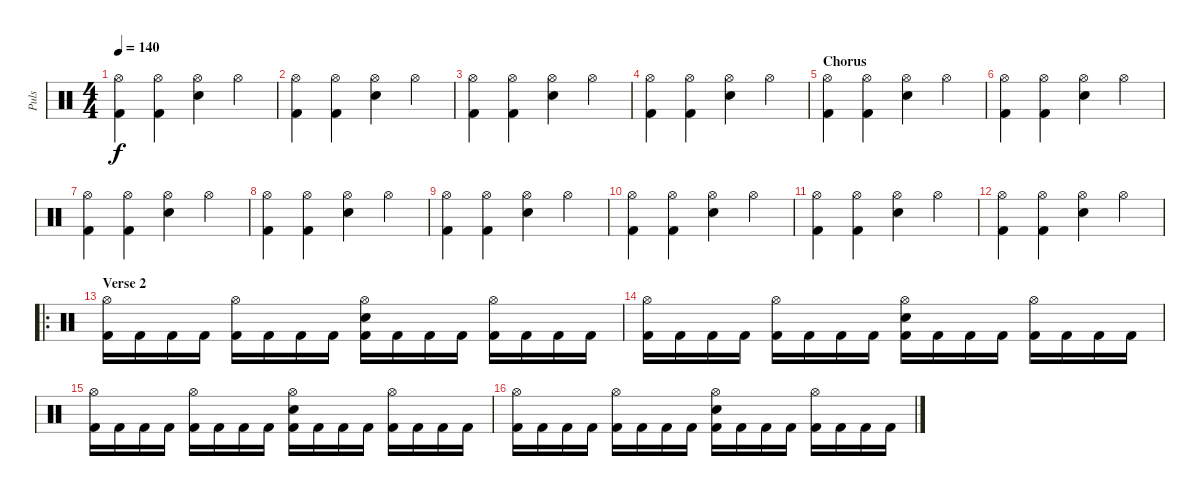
\track ("Puls" "Puls") {instrument percussion}
\staff {score}
\articulation defaults
\ts (4 4)
\tempo 140
\clef neutral
\ks c
("Hi-Hat (open)" "Kick (hit) 2").4{dy f} ("Hi-Hat (open)" "Kick (hit) 2").4 ("Hi-Hat (open)" "Snare (hit) 2").4 "Hi-Hat (open)".4 |
("Hi-Hat (open)" "Kick (hit) 2").4 ("Hi-Hat (open)" "Kick (hit) 2").4 ("Hi-Hat (open)" "Snare (hit) 2").4 "Hi-Hat (open)".4 |
("Hi-Hat (open)" "Kick (hit) 2").4 ("Hi-Hat (open)" "Kick (hit) 2").4 ("Hi-Hat (open)" "Snare (hit) 2").4 "Hi-Hat (open)".4 |
("Hi-Hat (open)" "Kick (hit) 2").4 ("Hi-Hat (open)" "Kick (hit) 2").4 ("Hi-Hat (open)" "Snare (hit) 2").4 "Hi-Hat (open)".4 |
\section ("" "Chorus")
("Hi-Hat (open)" "Kick (hit) 2").4 ("Hi-Hat (open)" "Kick (hit) 2").4 ("Hi-Hat (open)" "Snare (hit) 2").4 "Hi-Hat (open)".4 |
("Hi-Hat (open)" "Kick (hit) 2").4 ("Hi-Hat (open)" "Kick (hit) 2").4 ("Hi-Hat (open)" "Snare (hit) 2").4 "Hi-Hat (open)".4 |
("Hi-Hat (open)" "Kick (hit) 2").4 ("Hi-Hat (open)" "Kick (hit) 2").4 ("Hi-Hat (open)" "Snare (hit) 2").4 "Hi-Hat (open)".4 |
("Hi-Hat (open)" "Kick (hit) 2").4 ("Hi-Hat (open)" "Kick (hit) 2").4 ("Hi-Hat (open)" "Snare (hit) 2").4 "Hi-Hat (open)".4 |
("Hi-Hat (open)" "Kick (hit) 2").4 ("Hi-Hat (open)" "Kick (hit) 2").4 ("Hi-Hat (open)" "Snare (hit) 2").4 "Hi-Hat (open)".4 |
("Hi-Hat (open)" "Kick (hit) 2").4 ("Hi-Hat (open)" "Kick (hit) 2").4 ("Hi-Hat (open)" "Snare (hit) 2").4 "Hi-Hat (open)".4 |
("Hi-Hat (open)" "Kick (hit) 2").4 ("Hi-Hat (open)" "Kick (hit) 2").4 ("Hi-Hat (open)" "Snare (hit) 2").4 "Hi-Hat (open)".4 |
("Hi-Hat (open)" "Kick (hit) 2").4 ("Hi-Hat (open)" "Kick (hit) 2").4 ("Hi-Hat (open)" "Snare (hit) 2").4 "Hi-Hat (open)".4 |
\ro
\section ("" "Verse 2")
("Hi-Hat (open)" "Kick (hit) 2").16 "Kick (hit) 2".16 "Kick (hit) 2".16 "Kick (hit) 2".16 ("Hi-Hat (open)" "Kick (hit) 2").16 "Kick (hit) 2".16 "Kick (hit) 2".16 "Kick (hit) 2".16 ("Hi-Hat (open)" "Electric Snare (hit)" "Kick (hit) 2").16 "Kick (hit) 2".16 "Kick (hit) 2".16 "Kick (hit) 2".16 ("Hi-Hat (open)" "Kick (hit) 2").16 "Kick (hit) 2".16 "Kick (hit) 2".16 "Kick (hit) 2".16 |
("Hi-Hat (open)" "Kick (hit) 2").16 "Kick (hit) 2".16 "Kick (hit) 2".16 "Kick (hit) 2".16 ("Hi-Hat (open)" "Kick (hit) 2").16 "Kick (hit) 2".16 "Kick (hit) 2".16 "Kick (hit) 2".16 ("Hi-Hat (open)" "Electric Snare (hit)" "Kick (hit) 2").16 "Kick (hit) 2".16 "Kick (hit) 2".16 "Kick (hit) 2".16 ("Hi-Hat (open)" "Kick (hit) 2").16 "Kick (hit) 2".16 "Kick (hit) 2".16 "Kick (hit) 2".16 |
("Hi-Hat (open)" "Kick (hit) 2").16 "Kick (hit) 2".16 "Kick (hit) 2".16 "Kick (hit) 2".16 ("Hi-Hat (open)" "Kick (hit) 2").16 "Kick (hit) 2".16 "Kick (hit) 2".16 "Kick (hit) 2".16 ("Hi-Hat (open)" "Electric Snare (hit)" "Kick (hit) 2").16 "Kick (hit) 2".16 "Kick (hit) 2".16 "Kick (hit) 2".16 ("Hi-Hat (open)" "Kick (hit) 2").16 "Kick (hit) 2".16 "Kick (hit) 2".16 "Kick (hit) 2".16 |
("Hi-Hat (open)" "Kick (hit) 2").16 "Kick (hit) 2".16 "Kick (hit) 2".16 "Kick (hit) 2".16 ("Hi-Hat (open)" "Kick (hit) 2").16 "Kick (hit) 2".16 "Kick (hit) 2".16 "Kick (hit) 2".16 ("Hi-Hat (open)" "Electric Snare (hit)" "Kick (hit) 2").16 "Kick (hit) 2".16 "Kick (hit) 2".16 "Kick (hit) 2".16 ("Hi-Hat (open)" "Kick (hit) 2").16 "Kick (hit) 2".16 "Kick (hit) 2".16 "Kick (hit) 2".16
